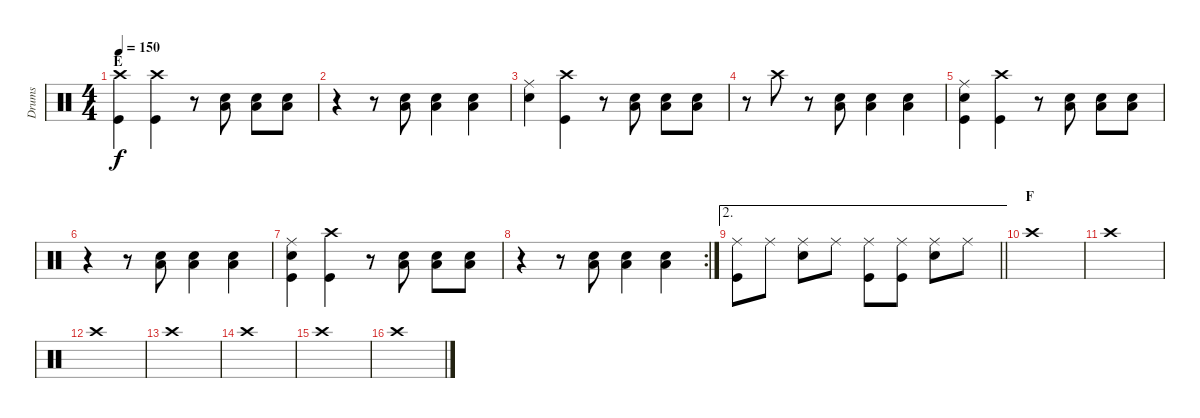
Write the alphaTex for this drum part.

\track ("Drums" "Drums") {instrument percussion}
\staff {score}
\articulation defaults
\ts (4 4)
\section ("" "E")
\tempo 150
\clef neutral
\ks c
("Crash high (hit)" "Kick (hit)").4{dy f} ("Crash high (hit)" "Kick (hit)").4 r.8 ("Snare (hit) 2" "Low Tom (hit)").8 ("Snare (hit) 2" "Low Tom (hit)").8 ("Snare (hit) 2" "Low Tom (hit)").8 |
r.4 r.8 ("Snare (hit) 2" "Low Tom (hit)").8 ("Snare (hit) 2" "Low Tom (hit)").4 ("Snare (hit) 2" "Low Tom (hit)").4 |
("Ride (middle)" "Snare (hit) 2").4 ("Crash high (hit)" "Kick (hit)").4 r.8 ("Snare (hit) 2" "Low Tom (hit)").8 ("Snare (hit) 2" "Low Tom (hit)").8 ("Snare (hit) 2" "Low Tom (hit)").8 |
r.8 "Crash high (hit)".8 r.8 ("Snare (hit) 2" "Low Tom (hit)").8 ("Snare (hit) 2" "Low Tom (hit)").4 ("Snare (hit) 2" "Low Tom (hit)").4 |
("Ride (middle)" "Snare (hit) 2" "Kick (hit)").4 ("Crash high (hit)" "Kick (hit)").4 r.8 ("Snare (hit) 2" "Low Tom (hit)").8 ("Snare (hit) 2" "Low Tom (hit)").8 ("Snare (hit) 2" "Low Tom (hit)").8 |
r.4 r.8 ("Snare (hit) 2" "Low Tom (hit)").8 ("Snare (hit) 2" "Low Tom (hit)").4 ("Snare (hit) 2" "Low Tom (hit)").4 |
("Ride (middle)" "Snare (hit) 2" "Kick (hit)").4 ("Crash high (hit)" "Kick (hit)").4 r.8 ("Snare (hit) 2" "Low Tom (hit)").8 ("Snare (hit) 2" "Low Tom (hit)").8 ("Snare (hit) 2" "Low Tom (hit)").8 |
\rc 2
r.4 r.8 ("Snare (hit) 2" "Low Tom (hit)").8 ("Snare (hit) 2" "Low Tom (hit)").4 ("Snare (hit) 2" "Low Tom (hit)").4 |
\ae 2
\barLineRight lightlight
("Ride (middle)" "Kick (hit)").8 "Ride (middle)".8 ("Ride (middle)" "Snare (hit) 2").8 "Ride (middle)".8 ("Ride (middle)" "Kick (hit)").8 ("Ride (middle)" "Kick (hit)").8 ("Ride (middle)" "Snare (hit) 2").8 "Ride (middle)".8 |
\section ("" "F")
"Crash high (hit)".1 |
"Crash high (hit)".1 |
"Crash high (hit)".1 |
"Crash high (hit)".1 |
"Crash high (hit)".1 |
"Crash high (hit)".1 |
"Crash high (hit)".1
